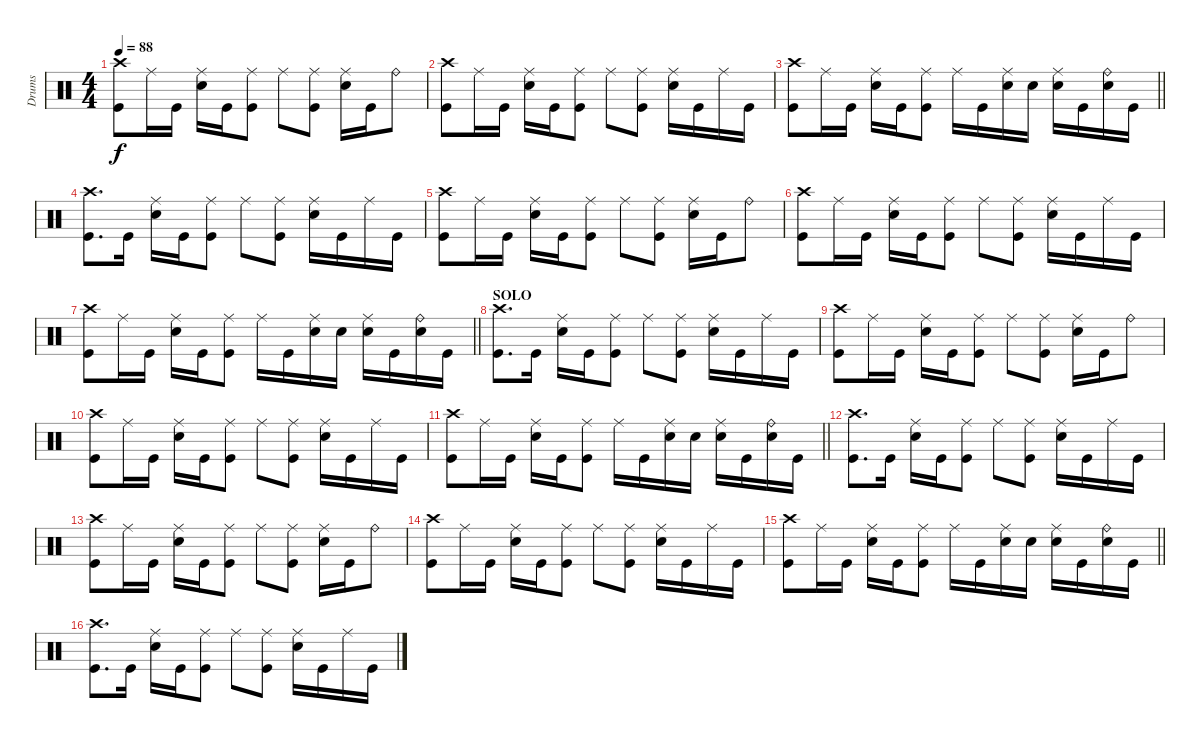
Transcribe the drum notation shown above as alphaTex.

\track ("Drums" "Drums") {instrument percussion}
\staff
\articulation defaults
\ts (4 4)
\tempo 88
\clef neutral
\ks c
("Crash high (hit)" "Kick (hit)").8{dy f} "Ride (middle)".16 "Kick (hit)".16 ("Ride (middle)" "Electric Snare (hit)").16 "Kick (hit)".16 ("Ride (middle)" "Kick (hit)").8 "Ride (middle)".8 ("Ride (middle)" "Kick (hit)").8 ("Ride (middle)" "Electric Snare (hit)").16 "Kick (hit)".16 "Ride (bell)".8 |
("Crash high (hit)" "Kick (hit)").8 "Ride (middle)".16 "Kick (hit)".16 ("Ride (middle)" "Electric Snare (hit)").16 "Kick (hit)".16 ("Ride (middle)" "Kick (hit)").8 "Ride (middle)".8 ("Ride (middle)" "Kick (hit)").8 ("Ride (middle)" "Electric Snare (hit)").16 "Kick (hit)".16 "Ride (middle)".16 "Kick (hit)".16 |
\barLineRight lightlight
("Crash high (hit)" "Kick (hit)").8 "Ride (middle)".16 "Kick (hit)".16 ("Ride (middle)" "Electric Snare (hit)").16 "Kick (hit)".16 ("Ride (middle)" "Kick (hit)").8 "Ride (middle)".16 "Kick (hit)".16 ("Ride (middle)" "Electric Snare (hit)").16 "Electric Snare (hit)".16 ("Ride (middle)" "Electric Snare (hit)").16 "Kick (hit)".16 ("Ride (bell)" "Electric Snare (hit)").16 "Kick (hit)".16 |
("Crash high (hit)" "Kick (hit)").8{d} "Kick (hit)".16 ("Ride (middle)" "Electric Snare (hit)").16 "Kick (hit)".16 ("Ride (middle)" "Kick (hit)").8 "Ride (middle)".8 ("Ride (middle)" "Kick (hit)").8 ("Ride (middle)" "Electric Snare (hit)").16 "Kick (hit)".16 "Ride (middle)".16 "Kick (hit)".16 |
("Crash high (hit)" "Kick (hit)").8 "Ride (middle)".16 "Kick (hit)".16 ("Ride (middle)" "Electric Snare (hit)").16 "Kick (hit)".16 ("Ride (middle)" "Kick (hit)").8 "Ride (middle)".8 ("Ride (middle)" "Kick (hit)").8 ("Ride (middle)" "Electric Snare (hit)").16 "Kick (hit)".16 "Ride (bell)".8 |
("Crash high (hit)" "Kick (hit)").8 "Ride (middle)".16 "Kick (hit)".16 ("Ride (middle)" "Electric Snare (hit)").16 "Kick (hit)".16 ("Ride (middle)" "Kick (hit)").8 "Ride (middle)".8 ("Ride (middle)" "Kick (hit)").8 ("Ride (middle)" "Electric Snare (hit)").16 "Kick (hit)".16 "Ride (middle)".16 "Kick (hit)".16 |
\barLineRight lightlight
("Crash high (hit)" "Kick (hit)").8 "Ride (middle)".16 "Kick (hit)".16 ("Ride (middle)" "Electric Snare (hit)").16 "Kick (hit)".16 ("Ride (middle)" "Kick (hit)").8 "Ride (middle)".16 "Kick (hit)".16 ("Ride (middle)" "Electric Snare (hit)").16 "Electric Snare (hit)".16 ("Ride (middle)" "Electric Snare (hit)").16 "Kick (hit)".16 ("Ride (bell)" "Electric Snare (hit)").16 "Kick (hit)".16 |
\section ("" "SOLO")
("Crash high (hit)" "Kick (hit)").8{d} "Kick (hit)".16 ("Ride (middle)" "Electric Snare (hit)").16 "Kick (hit)".16 ("Ride (middle)" "Kick (hit)").8 "Ride (middle)".8 ("Ride (middle)" "Kick (hit)").8 ("Ride (middle)" "Electric Snare (hit)").16 "Kick (hit)".16 "Ride (middle)".16 "Kick (hit)".16 |
("Crash high (hit)" "Kick (hit)").8 "Ride (middle)".16 "Kick (hit)".16 ("Ride (middle)" "Electric Snare (hit)").16 "Kick (hit)".16 ("Ride (middle)" "Kick (hit)").8 "Ride (middle)".8 ("Ride (middle)" "Kick (hit)").8 ("Ride (middle)" "Electric Snare (hit)").16 "Kick (hit)".16 "Ride (bell)".8 |
("Crash high (hit)" "Kick (hit)").8 "Ride (middle)".16 "Kick (hit)".16 ("Ride (middle)" "Electric Snare (hit)").16 "Kick (hit)".16 ("Ride (middle)" "Kick (hit)").8 "Ride (middle)".8 ("Ride (middle)" "Kick (hit)").8 ("Ride (middle)" "Electric Snare (hit)").16 "Kick (hit)".16 "Ride (middle)".16 "Kick (hit)".16 |
\barLineRight lightlight
("Crash high (hit)" "Kick (hit)").8 "Ride (middle)".16 "Kick (hit)".16 ("Ride (middle)" "Electric Snare (hit)").16 "Kick (hit)".16 ("Ride (middle)" "Kick (hit)").8 "Ride (middle)".16 "Kick (hit)".16 ("Ride (middle)" "Electric Snare (hit)").16 "Electric Snare (hit)".16 ("Ride (middle)" "Electric Snare (hit)").16 "Kick (hit)".16 ("Ride (bell)" "Electric Snare (hit)").16 "Kick (hit)".16 |
("Crash high (hit)" "Kick (hit)").8{d} "Kick (hit)".16 ("Ride (middle)" "Electric Snare (hit)").16 "Kick (hit)".16 ("Ride (middle)" "Kick (hit)").8 "Ride (middle)".8 ("Ride (middle)" "Kick (hit)").8 ("Ride (middle)" "Electric Snare (hit)").16 "Kick (hit)".16 "Ride (middle)".16 "Kick (hit)".16 |
("Crash high (hit)" "Kick (hit)").8 "Ride (middle)".16 "Kick (hit)".16 ("Ride (middle)" "Electric Snare (hit)").16 "Kick (hit)".16 ("Ride (middle)" "Kick (hit)").8 "Ride (middle)".8 ("Ride (middle)" "Kick (hit)").8 ("Ride (middle)" "Electric Snare (hit)").16 "Kick (hit)".16 "Ride (bell)".8 |
("Crash high (hit)" "Kick (hit)").8 "Ride (middle)".16 "Kick (hit)".16 ("Ride (middle)" "Electric Snare (hit)").16 "Kick (hit)".16 ("Ride (middle)" "Kick (hit)").8 "Ride (middle)".8 ("Ride (middle)" "Kick (hit)").8 ("Ride (middle)" "Electric Snare (hit)").16 "Kick (hit)".16 "Ride (middle)".16 "Kick (hit)".16 |
\barLineRight lightlight
("Crash high (hit)" "Kick (hit)").8 "Ride (middle)".16 "Kick (hit)".16 ("Ride (middle)" "Electric Snare (hit)").16 "Kick (hit)".16 ("Ride (middle)" "Kick (hit)").8 "Ride (middle)".16 "Kick (hit)".16 ("Ride (middle)" "Electric Snare (hit)").16 "Electric Snare (hit)".16 ("Ride (middle)" "Electric Snare (hit)").16 "Kick (hit)".16 ("Ride (bell)" "Electric Snare (hit)").16 "Kick (hit)".16 |
("Crash high (hit)" "Kick (hit)").8{d} "Kick (hit)".16 ("Ride (middle)" "Electric Snare (hit)").16 "Kick (hit)".16 ("Ride (middle)" "Kick (hit)").8 "Ride (middle)".8 ("Ride (middle)" "Kick (hit)").8 ("Ride (middle)" "Electric Snare (hit)").16 "Kick (hit)".16 "Ride (middle)".16 "Kick (hit)".16
